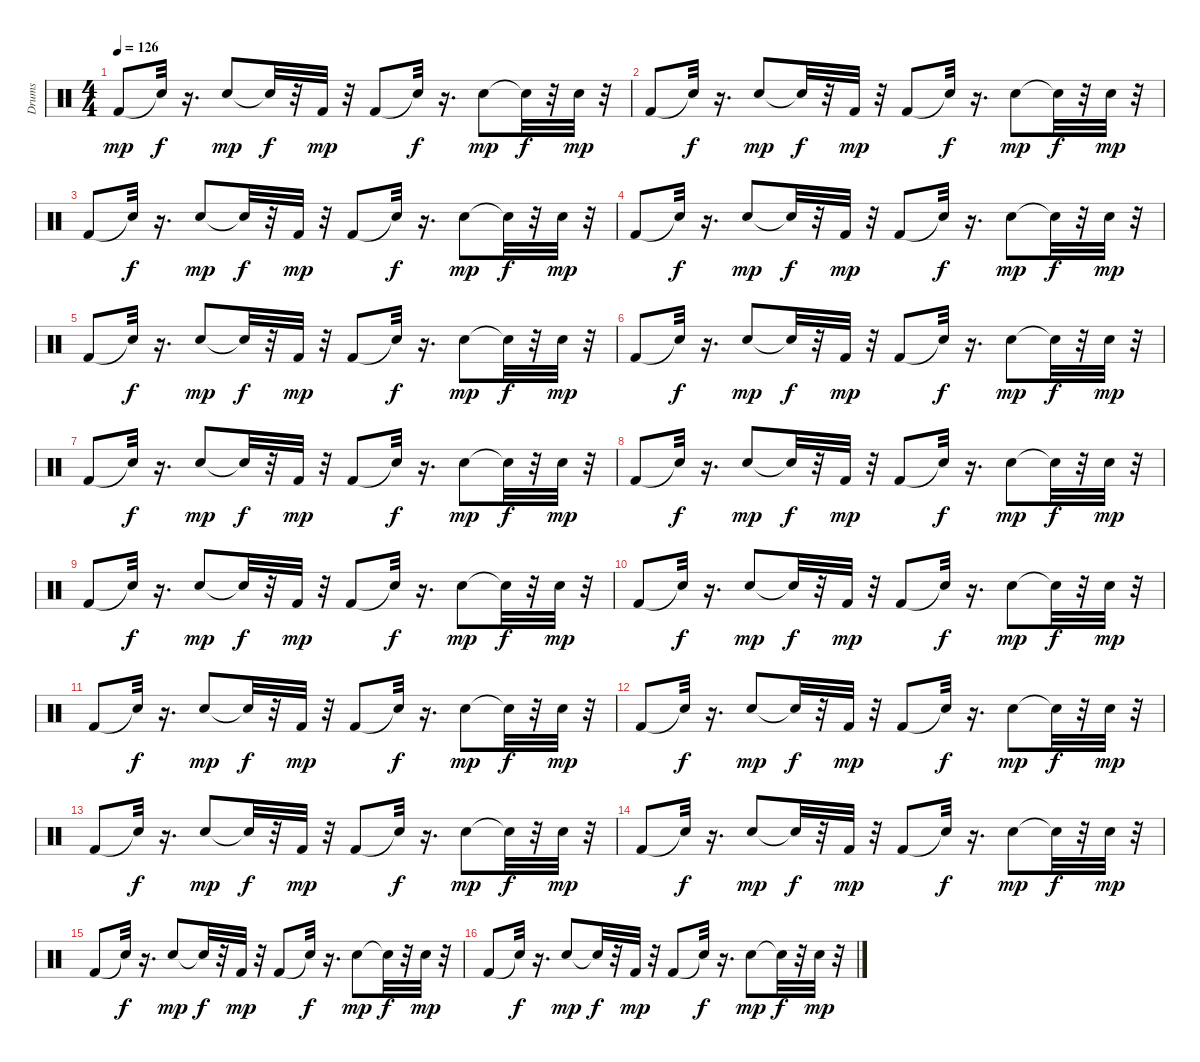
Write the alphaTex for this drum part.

\track ("Drums" "Drums") {instrument percussion}
\staff {score}
\articulation defaults
\ts (4 4)
\tempo 126
\clef neutral
\ks c "Kick (hit) 2".8{dy mp} "Snare (hit)"{t}.32{dy f}
r.16{d} "Electric Snare (hit)".8{dy mp} "Snare (hit)"{t}.32{dy f} r.32 "Kick (hit) 2".32{dy mp} r.32 "Kick (hit) 2".8 "Snare (hit)"{t}.32{dy f} r.16{d} "Electric Snare (hit)".8{dy mp} "Snare (hit)"{t}.32{dy f} r.32 "Electric Snare (hit)".32{dy mp} r.32 |
"Kick (hit) 2".8 "Snare (hit)"{t}.32{dy f} r.16{d} "Electric Snare (hit)".8{dy mp} "Snare (hit)"{t}.32{dy f} r.32 "Kick (hit) 2".32{dy mp} r.32 "Kick (hit) 2".8 "Snare (hit)"{t}.32{dy f} r.16{d} "Electric Snare (hit)".8{dy mp} "Snare (hit)"{t}.32{dy f} r.32 "Electric Snare (hit)".32{dy mp} r.32 |
"Kick (hit) 2".8 "Snare (hit)"{t}.32{dy f} r.16{d} "Electric Snare (hit)".8{dy mp} "Snare (hit)"{t}.32{dy f} r.32 "Kick (hit) 2".32{dy mp} r.32 "Kick (hit) 2".8 "Snare (hit)"{t}.32{dy f} r.16{d} "Electric Snare (hit)".8{dy mp} "Snare (hit)"{t}.32{dy f} r.32 "Electric Snare (hit)".32{dy mp} r.32 |
"Kick (hit) 2".8 "Snare (hit)"{t}.32{dy f} r.16{d} "Electric Snare (hit)".8{dy mp} "Snare (hit)"{t}.32{dy f} r.32 "Kick (hit) 2".32{dy mp} r.32 "Kick (hit) 2".8 "Snare (hit)"{t}.32{dy f} r.16{d} "Electric Snare (hit)".8{dy mp} "Snare (hit)"{t}.32{dy f} r.32 "Electric Snare (hit)".32{dy mp} r.32 |
"Kick (hit) 2".8 "Snare (hit)"{t}.32{dy f} r.16{d} "Electric Snare (hit)".8{dy mp} "Snare (hit)"{t}.32{dy f} r.32 "Kick (hit) 2".32{dy mp} r.32 "Kick (hit) 2".8 "Snare (hit)"{t}.32{dy f} r.16{d} "Electric Snare (hit)".8{dy mp} "Snare (hit)"{t}.32{dy f} r.32 "Electric Snare (hit)".32{dy mp} r.32 |
"Kick (hit) 2".8 "Snare (hit)"{t}.32{dy f} r.16{d} "Electric Snare (hit)".8{dy mp} "Snare (hit)"{t}.32{dy f} r.32 "Kick (hit) 2".32{dy mp} r.32 "Kick (hit) 2".8 "Snare (hit)"{t}.32{dy f} r.16{d} "Electric Snare (hit)".8{dy mp} "Snare (hit)"{t}.32{dy f} r.32 "Electric Snare (hit)".32{dy mp} r.32 |
"Kick (hit) 2".8 "Snare (hit)"{t}.32{dy f} r.16{d} "Electric Snare (hit)".8{dy mp} "Snare (hit)"{t}.32{dy f} r.32 "Kick (hit) 2".32{dy mp} r.32 "Kick (hit) 2".8 "Snare (hit)"{t}.32{dy f} r.16{d} "Electric Snare (hit)".8{dy mp} "Snare (hit)"{t}.32{dy f} r.32 "Electric Snare (hit)".32{dy mp} r.32 |
"Kick (hit) 2".8 "Snare (hit)"{t}.32{dy f} r.16{d} "Electric Snare (hit)".8{dy mp} "Snare (hit)"{t}.32{dy f} r.32 "Kick (hit) 2".32{dy mp} r.32 "Kick (hit) 2".8 "Snare (hit)"{t}.32{dy f} r.16{d} "Electric Snare (hit)".8{dy mp} "Snare (hit)"{t}.32{dy f} r.32 "Electric Snare (hit)".32{dy mp} r.32 |
"Kick (hit) 2".8 "Snare (hit)"{t}.32{dy f} r.16{d} "Electric Snare (hit)".8{dy mp} "Snare (hit)"{t}.32{dy f} r.32 "Kick (hit) 2".32{dy mp} r.32 "Kick (hit) 2".8 "Snare (hit)"{t}.32{dy f} r.16{d} "Electric Snare (hit)".8{dy mp} "Snare (hit)"{t}.32{dy f} r.32 "Electric Snare (hit)".32{dy mp} r.32 |
"Kick (hit) 2".8 "Snare (hit)"{t}.32{dy f} r.16{d} "Electric Snare (hit)".8{dy mp} "Snare (hit)"{t}.32{dy f} r.32 "Kick (hit) 2".32{dy mp} r.32 "Kick (hit) 2".8 "Snare (hit)"{t}.32{dy f} r.16{d} "Electric Snare (hit)".8{dy mp} "Snare (hit)"{t}.32{dy f} r.32 "Electric Snare (hit)".32{dy mp} r.32 |
"Kick (hit) 2".8 "Snare (hit)"{t}.32{dy f} r.16{d} "Electric Snare (hit)".8{dy mp} "Snare (hit)"{t}.32{dy f} r.32 "Kick (hit) 2".32{dy mp} r.32 "Kick (hit) 2".8 "Snare (hit)"{t}.32{dy f} r.16{d} "Electric Snare (hit)".8{dy mp} "Snare (hit)"{t}.32{dy f} r.32 "Electric Snare (hit)".32{dy mp} r.32 |
"Kick (hit) 2".8 "Snare (hit)"{t}.32{dy f} r.16{d} "Electric Snare (hit)".8{dy mp} "Snare (hit)"{t}.32{dy f} r.32 "Kick (hit) 2".32{dy mp} r.32 "Kick (hit) 2".8 "Snare (hit)"{t}.32{dy f} r.16{d} "Electric Snare (hit)".8{dy mp} "Snare (hit)"{t}.32{dy f} r.32 "Electric Snare (hit)".32{dy mp} r.32 |
"Kick (hit) 2".8 "Snare (hit)"{t}.32{dy f} r.16{d} "Electric Snare (hit)".8{dy mp} "Snare (hit)"{t}.32{dy f} r.32 "Kick (hit) 2".32{dy mp} r.32 "Kick (hit) 2".8 "Snare (hit)"{t}.32{dy f} r.16{d} "Electric Snare (hit)".8{dy mp} "Snare (hit)"{t}.32{dy f} r.32 "Electric Snare (hit)".32{dy mp} r.32 |
"Kick (hit) 2".8 "Snare (hit)"{t}.32{dy f} r.16{d} "Electric Snare (hit)".8{dy mp} "Snare (hit)"{t}.32{dy f} r.32 "Kick (hit) 2".32{dy mp} r.32 "Kick (hit) 2".8 "Snare (hit)"{t}.32{dy f} r.16{d} "Electric Snare (hit)".8{dy mp} "Snare (hit)"{t}.32{dy f} r.32 "Electric Snare (hit)".32{dy mp} r.32 |
"Kick (hit) 2".8 "Snare (hit)"{t}.32{dy f} r.16{d} "Electric Snare (hit)".8{dy mp} "Snare (hit)"{t}.32{dy f} r.32 "Kick (hit) 2".32{dy mp} r.32 "Kick (hit) 2".8 "Snare (hit)"{t}.32{dy f} r.16{d} "Electric Snare (hit)".8{dy mp} "Snare (hit)"{t}.32{dy f} r.32 "Electric Snare (hit)".32{dy mp} r.32 |
"Kick (hit) 2".8 "Snare (hit)"{t}.32{dy f} r.16{d} "Electric Snare (hit)".8{dy mp} "Snare (hit)"{t}.32{dy f} r.32 "Kick (hit) 2".32{dy mp} r.32 "Kick (hit) 2".8 "Snare (hit)"{t}.32{dy f} r.16{d} "Electric Snare (hit)".8{dy mp} "Snare (hit)"{t}.32{dy f} r.32 "Electric Snare (hit)".32{dy mp} r.32
